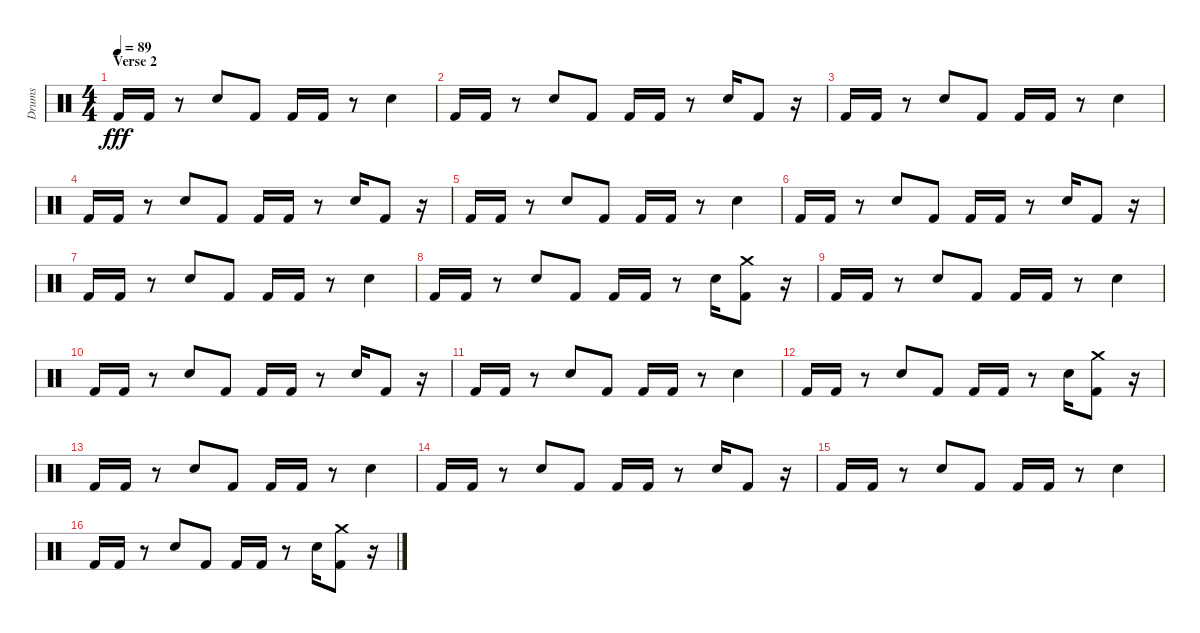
\track ("Drums" "Drums") {instrument percussion}
\staff {score}
\articulation defaults
\ts (4 4)
\section ("" "Verse 2")
\tempo 89
\clef neutral
\ks c "Kick (hit) 2".16{dy fff} "Kick (hit) 2".16
r.8 "Electric Snare (hit)".8 "Kick (hit) 2".8 "Kick (hit) 2".16 "Kick (hit) 2".16 r.8 "Electric Snare (hit)".4 |
"Kick (hit) 2".16 "Kick (hit) 2".16 r.8 "Electric Snare (hit)".8 "Kick (hit) 2".8 "Kick (hit) 2".16 "Kick (hit) 2".16 r.8 "Electric Snare (hit)".16 "Kick (hit) 2".8 r.16 |
"Kick (hit) 2".16 "Kick (hit) 2".16 r.8 "Electric Snare (hit)".8 "Kick (hit) 2".8 "Kick (hit) 2".16 "Kick (hit) 2".16 r.8 "Electric Snare (hit)".4 |
"Kick (hit) 2".16 "Kick (hit) 2".16 r.8 "Electric Snare (hit)".8 "Kick (hit) 2".8 "Kick (hit) 2".16 "Kick (hit) 2".16 r.8 "Electric Snare (hit)".16 "Kick (hit) 2".8 r.16 |
"Kick (hit) 2".16 "Kick (hit) 2".16 r.8 "Electric Snare (hit)".8 "Kick (hit) 2".8 "Kick (hit) 2".16 "Kick (hit) 2".16 r.8 "Electric Snare (hit)".4 |
"Kick (hit) 2".16 "Kick (hit) 2".16 r.8 "Electric Snare (hit)".8 "Kick (hit) 2".8 "Kick (hit) 2".16 "Kick (hit) 2".16 r.8 "Electric Snare (hit)".16 "Kick (hit) 2".8 r.16 |
"Kick (hit) 2".16 "Kick (hit) 2".16 r.8 "Electric Snare (hit)".8 "Kick (hit) 2".8 "Kick (hit) 2".16 "Kick (hit) 2".16 r.8 "Electric Snare (hit)".4 |
"Kick (hit) 2".16 "Kick (hit) 2".16 r.8 "Electric Snare (hit)".8 "Kick (hit) 2".8 "Kick (hit) 2".16 "Kick (hit) 2".16 r.8 "Electric Snare (hit)".16 ("Crash medium (hit)" "Kick (hit) 2").8 r.16 |
"Kick (hit) 2".16 "Kick (hit) 2".16 r.8 "Electric Snare (hit)".8 "Kick (hit) 2".8 "Kick (hit) 2".16 "Kick (hit) 2".16 r.8 "Electric Snare (hit)".4 |
"Kick (hit) 2".16 "Kick (hit) 2".16 r.8 "Electric Snare (hit)".8 "Kick (hit) 2".8 "Kick (hit) 2".16 "Kick (hit) 2".16 r.8 "Electric Snare (hit)".16 "Kick (hit) 2".8 r.16 |
"Kick (hit) 2".16 "Kick (hit) 2".16 r.8 "Electric Snare (hit)".8 "Kick (hit) 2".8 "Kick (hit) 2".16 "Kick (hit) 2".16 r.8 "Electric Snare (hit)".4 |
"Kick (hit) 2".16 "Kick (hit) 2".16 r.8 "Electric Snare (hit)".8 "Kick (hit) 2".8 "Kick (hit) 2".16 "Kick (hit) 2".16 r.8 "Electric Snare (hit)".16 ("Crash medium (hit)" "Kick (hit) 2").8 r.16 |
"Kick (hit) 2".16 "Kick (hit) 2".16 r.8 "Electric Snare (hit)".8 "Kick (hit) 2".8 "Kick (hit) 2".16 "Kick (hit) 2".16 r.8 "Electric Snare (hit)".4 |
"Kick (hit) 2".16 "Kick (hit) 2".16 r.8 "Electric Snare (hit)".8 "Kick (hit) 2".8 "Kick (hit) 2".16 "Kick (hit) 2".16 r.8 "Electric Snare (hit)".16 "Kick (hit) 2".8 r.16 |
"Kick (hit) 2".16 "Kick (hit) 2".16 r.8 "Electric Snare (hit)".8 "Kick (hit) 2".8 "Kick (hit) 2".16 "Kick (hit) 2".16 r.8 "Electric Snare (hit)".4 |
"Kick (hit) 2".16 "Kick (hit) 2".16 r.8 "Electric Snare (hit)".8 "Kick (hit) 2".8 "Kick (hit) 2".16 "Kick (hit) 2".16 r.8 "Electric Snare (hit)".16 ("Crash medium (hit)" "Kick (hit) 2").8 r.16
